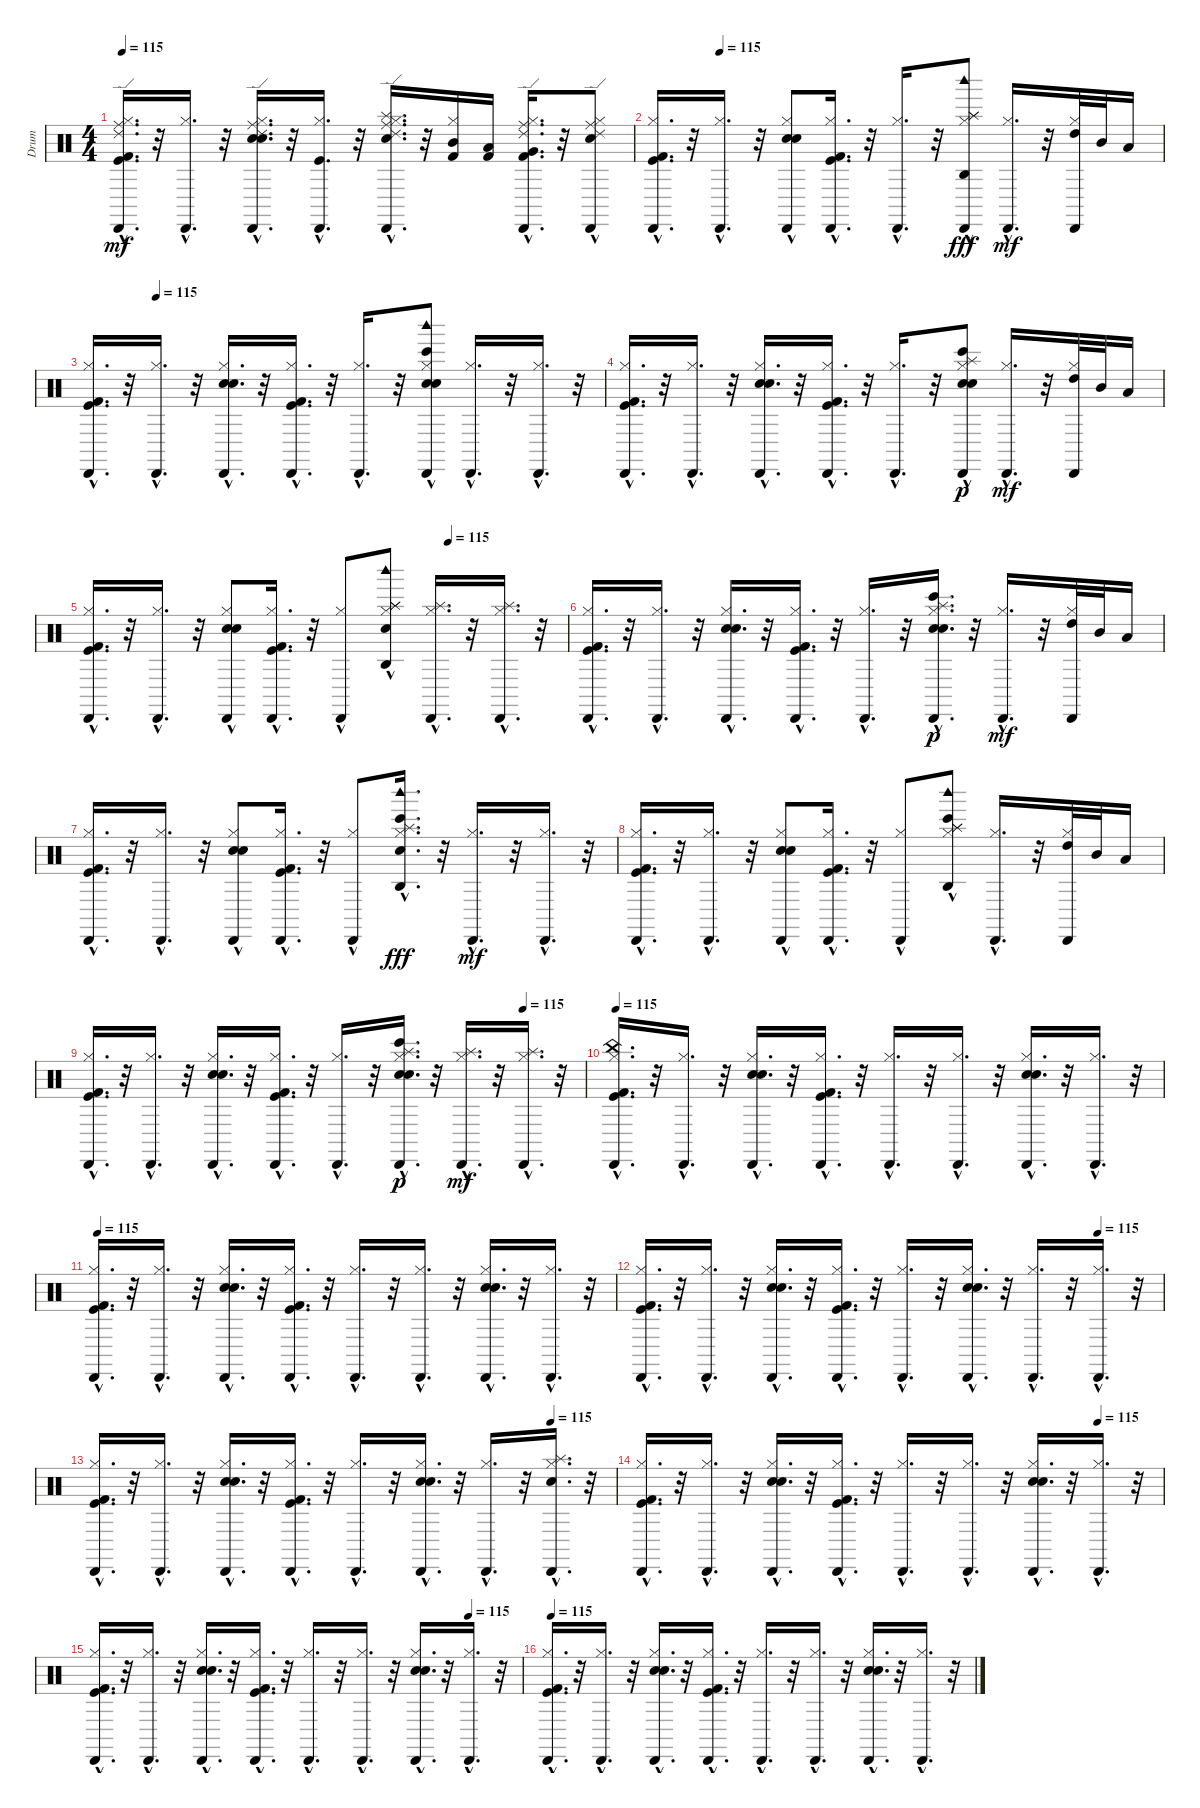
\track ("Drum" "Drum") {instrument percussion}
\staff {score}
\articulation defaults
\ts (4 4)
\tempo 115
\clef neutral
\ks c
("Cabasa (hit)"{hac} "Kick (hit) 2"{hac} "Kick (hit)"{hac} "Hi-Hat (closed)"{hac} "Ride (edge) 2"{hac} "Ride (middle)"{hac}).16{d dy mf} r.32 ("Cabasa (hit)"{hac} "Hi-Hat (closed)"{hac}).16{d} r.32 ("Electric Snare (hit)"{hac} "Snare (hit) 2"{hac} "Cabasa (hit)"{hac} "Hi-Hat (closed)"{hac} "Ride (edge) 2"{hac} "Ride (middle)"{hac}).16{d} r.32 ("Kick (hit)"{hac} "Cabasa (hit)"{hac} "Hi-Hat (closed)"{hac}).16{d} r.32 ("Splash (hit)"{hac} "Snare (hit) 2"{hac} "Cabasa (hit)"{hac} "Hi-Hat (closed)"{hac} "Ride (edge) 2"{hac} "Ride (middle)"{hac}).16{d} r.32 ("Kick (hit) 2" "Hi-Hat (closed)" "Mid Tom (hit)").16 ("Kick (hit) 2" "Low Tom (hit)").16 ("Kick (hit) 2"{hac} "Very Low Tom (hit)"{hac} "Cabasa (hit)"{hac} "Hi-Hat (closed)"{hac} "Ride (edge) 2"{hac} "Ride (middle)"{hac}).16{d} r.32 ("Cabasa (hit)"{hac} "Hi-Hat (closed)"{hac} "Ride (middle)" "Ride (edge) 2"{hac} "Snare (hit) 2"{hac}).8 |
\tempo (115 0.125)
("Kick (hit) 2"{hac} "Cabasa (hit)"{hac} "Kick (hit)"{hac} "Hi-Hat (closed)"{hac}).16{d} r.32 ("Cabasa (hit)"{hac} "Hi-Hat (closed)"{hac}).16{d} r.32 ("Hi-Hat (closed)"{hac} "Electric Snare (hit)"{hac} "Snare (hit) 2"{hac} "Cabasa (hit)"{hac}).8 ("Kick (hit)"{hac} "Hi-Hat (closed)"{hac} "Kick (hit) 2"{hac} "Cabasa (hit)"{hac}).16{d} r.32 ("Cabasa (hit)"{hac} "Hi-Hat (closed)"{hac}).16{d} r.32 ("Splash (hit)" "Hi-Hat (closed)"{hac} "Splash (hit)" "Cabasa (hit)"{hac} "Woodblock high (hit)"{hac} "Agogo high (hit)").8{dy fff} ("Hi-Hat (closed)"{hac} "Cabasa (hit)"{hac}).16{d dy mf} r.32 ("High Tom (hit)" "Cabasa (hit)" "Hi-Hat (closed)").32 "Mid Tom (hit)".32 "Low Tom (hit)".16 |
\tempo (115 0.125)
("Kick (hit)"{hac} "Kick (hit) 2"{hac} "Cabasa (hit)"{hac} "Hi-Hat (closed)"{hac}).16{d} r.32 ("Hi-Hat (closed)"{hac} "Cabasa (hit)"{hac}).16{d} r.32 ("Cabasa (hit)"{hac} "Electric Snare (hit)"{hac} "Snare (hit) 2"{hac} "Hi-Hat (closed)"{hac}).16{d} r.32 ("Cabasa (hit)"{hac} "Kick (hit)"{hac} "Hi-Hat (closed)"{hac} "Kick (hit) 2"{hac}).16{d} r.32 ("Hi-Hat (closed)"{hac} "Cabasa (hit)"{hac}).16{d} r.32 ("Hi-Hat (closed)"{hac} "Bongo High (hit)"{hac} "Woodblock high (hit)" "Cabasa (hit)"{hac} "Snare (hit) 2"{hac} "Electric Snare (hit)"{hac}).8 ("Hi-Hat (closed)"{hac} "Cabasa (hit)"{hac}).16{d} r.32 ("Cabasa (hit)"{hac} "Hi-Hat (closed)"{hac}).16{d} r.32 |
("Cabasa (hit)"{hac} "Kick (hit) 2"{hac} "Kick (hit)"{hac} "Hi-Hat (closed)"{hac}).16{d} r.32 ("Cabasa (hit)"{hac} "Hi-Hat (closed)"{hac}).16{d} r.32 ("Cabasa (hit)"{hac} "Electric Snare (hit)"{hac} "Snare (hit) 2"{hac} "Hi-Hat (closed)"{hac}).16{d} r.32 ("Cabasa (hit)"{hac} "Kick (hit) 2"{hac} "Kick (hit)"{hac} "Hi-Hat (closed)"{hac}).16{d} r.32 ("Cabasa (hit)"{hac} "Hi-Hat (closed)"{hac}).16{d} r.32 ("Cabasa (hit)"{hac} "Electric Snare (hit)"{hac} "Snare (hit) 2"{hac} "Hi-Hat (closed)"{hac} "Bongo High (hit)" "Splash (hit)"{hac}).8{dy p} ("Cabasa (hit)"{hac} "Hi-Hat (closed)"{hac}).16{d dy mf} r.32 ("Cabasa (hit)" "Hi-Hat (closed)" "High Tom (hit)").32 "Mid Tom (hit)".32 "Low Tom (hit)".16 |
\tempo (115 0.75)
("Hi-Hat (closed)"{hac} "Kick (hit) 2"{hac} "Kick (hit)"{hac} "Cabasa (hit)"{hac}).16{d} r.32 ("Hi-Hat (closed)"{hac} "Cabasa (hit)"{hac}).16{d} r.32 ("Snare (hit) 2"{hac} "Hi-Hat (closed)"{hac} "Cabasa (hit)"{hac} "Electric Snare (hit)"{hac}).8 ("Kick (hit)"{hac} "Hi-Hat (closed)"{hac} "Cabasa (hit)"{hac} "Kick (hit) 2"{hac}).16{d} r.32 ("Cabasa (hit)"{hac} "Hi-Hat (closed)"{hac}).8 ("Splash (hit)"{hac} "Agogo high (hit)" "Woodblock high (hit)" "Splash (hit)"{hac} "Hi-Hat (closed)"{hac} "Snare (hit) 2"{hac}).8 ("Splash (hit)"{hac} "Hi-Hat (closed)"{hac} "Cabasa (hit)"{hac}).16{d} r.32 ("Splash (hit)"{hac} "Hi-Hat (closed)"{hac} "Cabasa (hit)"{hac}).16{d} r.32 |
("Cabasa (hit)"{hac} "Kick (hit) 2"{hac} "Kick (hit)"{hac} "Hi-Hat (closed)"{hac}).16{d} r.32 ("Cabasa (hit)"{hac} "Hi-Hat (closed)"{hac}).16{d} r.32 ("Cabasa (hit)"{hac} "Electric Snare (hit)"{hac} "Snare (hit) 2"{hac} "Hi-Hat (closed)"{hac}).16{d} r.32 ("Cabasa (hit)"{hac} "Kick (hit) 2"{hac} "Kick (hit)"{hac} "Hi-Hat (closed)"{hac}).16{d} r.32 ("Cabasa (hit)"{hac} "Hi-Hat (closed)"{hac}).16{d} r.32 ("Cabasa (hit)"{hac} "Electric Snare (hit)"{hac} "Snare (hit) 2"{hac} "Hi-Hat (closed)"{hac} "Bongo High (hit)"{hac} "Splash (hit)"{hac}).16{d dy p} r.32 ("Cabasa (hit)"{hac} "Hi-Hat (closed)"{hac}).16{d dy mf} r.32 ("Cabasa (hit)" "Hi-Hat (closed)" "High Tom (hit)").32 "Mid Tom (hit)".32 "Low Tom (hit)".16 |
("Hi-Hat (closed)"{hac} "Kick (hit) 2"{hac} "Kick (hit)"{hac} "Cabasa (hit)"{hac}).16{d} r.32 ("Hi-Hat (closed)"{hac} "Cabasa (hit)"{hac}).16{d} r.32 ("Snare (hit) 2"{hac} "Hi-Hat (closed)"{hac} "Cabasa (hit)"{hac} "Electric Snare (hit)"{hac}).8 ("Kick (hit)"{hac} "Cabasa (hit)"{hac} "Kick (hit) 2"{hac} "Hi-Hat (closed)"{hac}).16{d} r.32 ("Cabasa (hit)"{hac} "Hi-Hat (closed)"{hac}).8 ("Splash (hit)"{hac} "Agogo high (hit)"{hac} "Woodblock high (hit)"{hac} "Hi-Hat (closed)"{hac} "Snare (hit) 2"{hac} "Bongo High (hit)"{hac}).16{d dy fff} r.32 ("Hi-Hat (closed)"{hac} "Cabasa (hit)"{hac}).16{d dy mf} r.32 ("Hi-Hat (closed)"{hac} "Cabasa (hit)"{hac}).16{d} r.32 |
("Hi-Hat (closed)"{hac} "Kick (hit)"{hac} "Kick (hit) 2"{hac} "Cabasa (hit)"{hac}).16{d} r.32 ("Hi-Hat (closed)"{hac} "Cabasa (hit)"{hac}).16{d} r.32 ("Hi-Hat (closed)"{hac} "Snare (hit) 2"{hac} "Electric Snare (hit)"{hac} "Cabasa (hit)"{hac}).8 ("Hi-Hat (closed)"{hac} "Kick (hit)"{hac} "Kick (hit) 2"{hac} "Cabasa (hit)"{hac}).16{d} r.32 ("Hi-Hat (closed)"{hac} "Cabasa (hit)"{hac}).8 ("Splash (hit)"{hac} "Agogo high (hit)" "Woodblock high (hit)" "Splash (hit)"{hac} "Bongo High (hit)"{hac} "Hi-Hat (closed)"{hac}).8 ("Hi-Hat (closed)"{hac} "Cabasa (hit)"{hac}).16{d} r.32 ("High Tom (hit)" "Hi-Hat (closed)" "Cabasa (hit)").32 "Mid Tom (hit)".32 "Low Tom (hit)".16 |
\tempo (115 0.875)
("Cabasa (hit)"{hac} "Kick (hit) 2"{hac} "Kick (hit)"{hac} "Hi-Hat (closed)"{hac}).16{d} r.32 ("Cabasa (hit)"{hac} "Hi-Hat (closed)"{hac}).16{d} r.32 ("Cabasa (hit)"{hac} "Electric Snare (hit)"{hac} "Snare (hit) 2"{hac} "Hi-Hat (closed)"{hac}).16{d} r.32 ("Cabasa (hit)"{hac} "Kick (hit) 2"{hac} "Kick (hit)"{hac} "Hi-Hat (closed)"{hac}).16{d} r.32 ("Cabasa (hit)"{hac} "Hi-Hat (closed)"{hac}).16{d} r.32 ("Cabasa (hit)"{hac} "Electric Snare (hit)"{hac} "Snare (hit) 2"{hac} "Hi-Hat (closed)"{hac} "Bongo High (hit)"{hac} "Splash (hit)"{hac}).16{d dy p} r.32 ("Cabasa (hit)"{hac} "Hi-Hat (closed)"{hac} "Splash (hit)"{hac}).16{d dy mf} r.32 ("Hi-Hat (closed)"{hac} "Cabasa (hit)"{hac} "Splash (hit)"{hac}).16{d} r.32 |
\tempo 115
("Cabasa (hit)"{hac} "Kick (hit) 2"{hac} "Kick (hit)"{hac} "Hi-Hat (closed)"{hac} "China (hit)"{hac}).16{d} r.32 ("Cabasa (hit)"{hac} "Hi-Hat (closed)"{hac}).16{d} r.32 ("Cabasa (hit)"{hac} "Electric Snare (hit)"{hac} "Snare (hit) 2"{hac} "Hi-Hat (closed)"{hac}).16{d} r.32 ("Cabasa (hit)"{hac} "Kick (hit) 2"{hac} "Kick (hit)"{hac} "Hi-Hat (closed)"{hac}).16{d} r.32 ("Cabasa (hit)"{hac} "Hi-Hat (closed)"{hac}).16{d} r.32 ("Cabasa (hit)"{hac} "Hi-Hat (closed)"{hac}).16{d} r.32 ("Cabasa (hit)"{hac} "Hi-Hat (closed)"{hac} "Electric Snare (hit)"{hac} "Snare (hit) 2"{hac}).16{d} r.32 ("Cabasa (hit)"{hac} "Hi-Hat (closed)"{hac}).16{d} r.32 |
\tempo 115
("Hi-Hat (closed)"{hac} "Kick (hit) 2"{hac} "Kick (hit)"{hac} "Cabasa (hit)"{hac}).16{d} r.32 ("Cabasa (hit)"{hac} "Hi-Hat (closed)"{hac}).16{d} r.32 ("Hi-Hat (closed)"{hac} "Electric Snare (hit)"{hac} "Snare (hit) 2"{hac} "Cabasa (hit)"{hac}).16{d} r.32 ("Kick (hit)"{hac} "Hi-Hat (closed)"{hac} "Cabasa (hit)"{hac} "Kick (hit) 2"{hac}).16{d} r.32 ("Hi-Hat (closed)"{hac} "Cabasa (hit)"{hac}).16{d} r.32 ("Hi-Hat (closed)"{hac} "Cabasa (hit)"{hac}).16{d} r.32 ("Cabasa (hit)"{hac} "Hi-Hat (closed)"{hac} "Electric Snare (hit)"{hac} "Snare (hit) 2"{hac}).16{d} r.32 ("Hi-Hat (closed)"{hac} "Cabasa (hit)"{hac}).16{d} r.32 |
\tempo (115 0.875)
("Kick (hit) 2"{hac} "Kick (hit)"{hac} "Hi-Hat (closed)"{hac} "Cabasa (hit)"{hac}).16{d} r.32 ("Hi-Hat (closed)"{hac} "Cabasa (hit)"{hac}).16{d} r.32 ("Snare (hit) 2"{hac} "Electric Snare (hit)"{hac} "Cabasa (hit)"{hac} "Hi-Hat (closed)"{hac}).16{d} r.32 ("Kick (hit)"{hac} "Hi-Hat (closed)"{hac} "Cabasa (hit)"{hac} "Kick (hit) 2"{hac}).16{d} r.32 ("Hi-Hat (closed)"{hac} "Cabasa (hit)"{hac}).16{d} r.32 ("Electric Snare (hit)"{hac} "Hi-Hat (closed)"{hac} "Snare (hit) 2"{hac} "Cabasa (hit)"{hac}).16{d} r.32 ("Cabasa (hit)"{hac} "Hi-Hat (closed)"{hac}).16{d} r.32 ("Hi-Hat (closed)"{hac} "Cabasa (hit)"{hac}).16{d} r.32 |
\tempo (115 0.875)
("Hi-Hat (closed)"{hac} "Kick (hit)"{hac} "Kick (hit) 2"{hac} "Cabasa (hit)"{hac}).16{d} r.32 ("Hi-Hat (closed)"{hac} "Cabasa (hit)"{hac}).16{d} r.32 ("Hi-Hat (closed)"{hac} "Snare (hit) 2"{hac} "Electric Snare (hit)"{hac} "Cabasa (hit)"{hac}).16{d} r.32 ("Hi-Hat (closed)"{hac} "Kick (hit)"{hac} "Kick (hit) 2"{hac} "Cabasa (hit)"{hac}).16{d} r.32 ("Hi-Hat (closed)"{hac} "Cabasa (hit)"{hac}).16{d} r.32 ("Hi-Hat (closed)"{hac} "Snare (hit) 2"{hac} "Electric Snare (hit)"{hac} "Cabasa (hit)"{hac}).16{d} r.32 ("Hi-Hat (closed)"{hac} "Cabasa (hit)"{hac}).16{d} r.32 ("Snare (hit) 2"{hac} "Hi-Hat (closed)"{hac} "Cabasa (hit)"{hac} "Splash (hit)"{hac}).16{d} r.32 |
\tempo (115 0.875)
("Hi-Hat (closed)"{hac} "Kick (hit)"{hac} "Kick (hit) 2"{hac} "Cabasa (hit)"{hac}).16{d} r.32 ("Hi-Hat (closed)"{hac} "Cabasa (hit)"{hac}).16{d} r.32 ("Hi-Hat (closed)"{hac} "Snare (hit) 2"{hac} "Electric Snare (hit)"{hac} "Cabasa (hit)"{hac}).16{d} r.32 ("Hi-Hat (closed)"{hac} "Kick (hit)"{hac} "Kick (hit) 2"{hac} "Cabasa (hit)"{hac}).16{d} r.32 ("Hi-Hat (closed)"{hac} "Cabasa (hit)"{hac}).16{d} r.32 ("Hi-Hat (closed)"{hac} "Cabasa (hit)"{hac}).16{d} r.32 ("Snare (hit) 2"{hac} "Electric Snare (hit)"{hac} "Hi-Hat (closed)"{hac} "Cabasa (hit)"{hac}).16{d} r.32 ("Hi-Hat (closed)"{hac} "Cabasa (hit)"{hac}).16{d} r.32 |
\tempo (115 0.875)
("Cabasa (hit)"{hac} "Kick (hit) 2"{hac} "Kick (hit)"{hac} "Hi-Hat (closed)"{hac}).16{d} r.32 ("Cabasa (hit)"{hac} "Hi-Hat (closed)"{hac}).16{d} r.32 ("Cabasa (hit)"{hac} "Electric Snare (hit)"{hac} "Snare (hit) 2"{hac} "Hi-Hat (closed)"{hac}).16{d} r.32 ("Cabasa (hit)"{hac} "Kick (hit) 2"{hac} "Kick (hit)"{hac} "Hi-Hat (closed)"{hac}).16{d} r.32 ("Cabasa (hit)"{hac} "Hi-Hat (closed)"{hac}).16{d} r.32 ("Cabasa (hit)"{hac} "Hi-Hat (closed)"{hac}).16{d} r.32 ("Snare (hit) 2"{hac} "Electric Snare (hit)"{hac} "Cabasa (hit)"{hac} "Hi-Hat (closed)"{hac}).16{d} r.32 ("Cabasa (hit)"{hac} "Hi-Hat (closed)"{hac}).16{d} r.32 |
\tempo 115
("Hi-Hat (closed)"{hac} "Kick (hit)"{hac} "Cabasa (hit)"{hac} "Kick (hit) 2"{hac}).16{d} r.32 ("Cabasa (hit)"{hac} "Hi-Hat (closed)"{hac}).16{d} r.32 ("Snare (hit) 2"{hac} "Hi-Hat (closed)"{hac} "Cabasa (hit)"{hac} "Electric Snare (hit)"{hac}).16{d} r.32 ("Kick (hit)"{hac} "Hi-Hat (closed)"{hac} "Kick (hit) 2"{hac} "Cabasa (hit)"{hac}).16{d} r.32 ("Hi-Hat (closed)"{hac} "Cabasa (hit)"{hac}).16{d} r.32 ("Hi-Hat (closed)"{hac} "Cabasa (hit)"{hac}).16{d} r.32 ("Hi-Hat (closed)"{hac} "Electric Snare (hit)"{hac} "Cabasa (hit)"{hac} "Snare (hit) 2"{hac}).16{d} r.32 ("Cabasa (hit)"{hac} "Hi-Hat (closed)"{hac}).16{d} r.32
